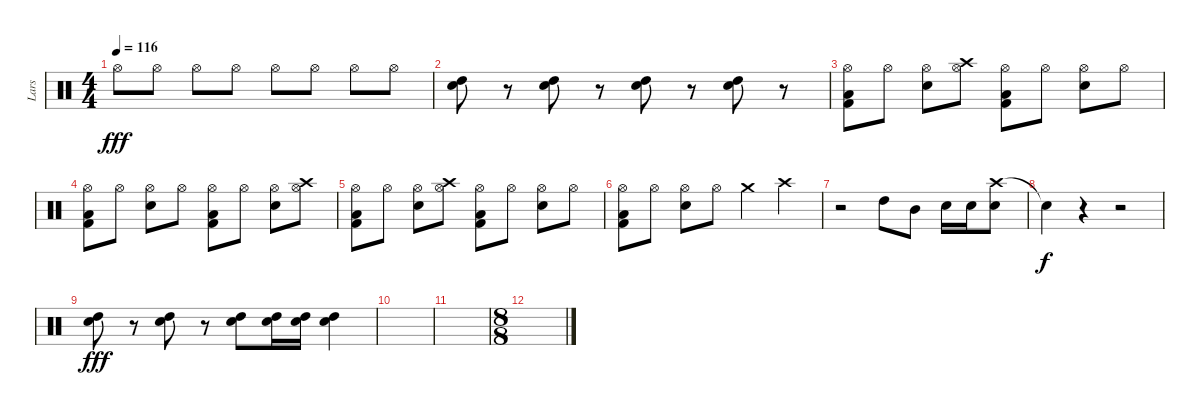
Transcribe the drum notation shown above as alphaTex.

\track ("Lars" "Lars") {instrument percussion}
\staff {score}
\articulation defaults
\ts (4 4)
\tempo 116
\clef neutral
\ks c "Hi-Hat (open)".8{dy fff} "Hi-Hat (open)".8 "Hi-Hat (open)".8 "Hi-Hat (open)".8 "Hi-Hat (open)".8 "Hi-Hat (open)".8 "Hi-Hat (open)".8 "Hi-Hat (open)".8
|
("High Tom (hit)" "Electric Snare (hit)").8 r.8 ("High Tom (hit)" "Electric Snare (hit)").8 r.8 ("High Tom (hit)" "Electric Snare (hit)").8 r.8 ("High Tom (hit)" "Electric Snare (hit)").8 r.8 |
("Low Floor Tom (hit)" "Hi-Hat (open)" "Kick (hit) 2").8 "Hi-Hat (open)".8 ("Hi-Hat (open)" "Electric Snare (hit)").8 ("Crash high (hit)" "Hi-Hat (open)").8 ("Low Floor Tom (hit)" "Hi-Hat (open)" "Kick (hit) 2").8 "Hi-Hat (open)".8 ("Hi-Hat (open)" "Electric Snare (hit)").8 "Hi-Hat (open)".8 |
("Low Floor Tom (hit)" "Hi-Hat (open)" "Kick (hit) 2").8 "Hi-Hat (open)".8 ("Hi-Hat (open)" "Electric Snare (hit)").8 "Hi-Hat (open)".8 ("Low Floor Tom (hit)" "Hi-Hat (open)" "Kick (hit) 2").8 "Hi-Hat (open)".8 ("Hi-Hat (open)" "Electric Snare (hit)").8 ("Crash high (hit)" "Hi-Hat (open)").8 |
("Low Floor Tom (hit)" "Hi-Hat (open)" "Kick (hit) 2").8 "Hi-Hat (open)".8 ("Hi-Hat (open)" "Electric Snare (hit)").8 ("Crash high (hit)" "Hi-Hat (open)").8 ("Low Floor Tom (hit)" "Hi-Hat (open)" "Kick (hit) 2").8 "Hi-Hat (open)".8 ("Hi-Hat (open)" "Electric Snare (hit)").8 "Hi-Hat (open)".8 |
("Low Floor Tom (hit)" "Hi-Hat (open)" "Kick (hit) 2").8 "Hi-Hat (open)".8 ("Hi-Hat (open)" "Electric Snare (hit)").8 "Hi-Hat (open)".8 "Crash medium (hit)".4 "Crash high (hit)".4 |
r.2 "High Tom (hit)".8 "Mid Tom (hit)".8 "Electric Snare (hit)".16 "Electric Snare (hit)".16 ("Crash high (hit)" "Electric Snare (hit)").8 |
"Snare (hit)"{t}.4{dy f} r.4 r.2 |
("High Tom (hit)" "Electric Snare (hit)").8{dy fff} r.8 ("High Tom (hit)" "Electric Snare (hit)").8 r.8 ("High Tom (hit)" "Electric Snare (hit)").8 ("High Tom (hit)" "Electric Snare (hit)").16 ("High Tom (hit)" "Electric Snare (hit)").16 ("High Tom (hit)" "Electric Snare (hit)").4 |
|
|
\ts (8 8)
